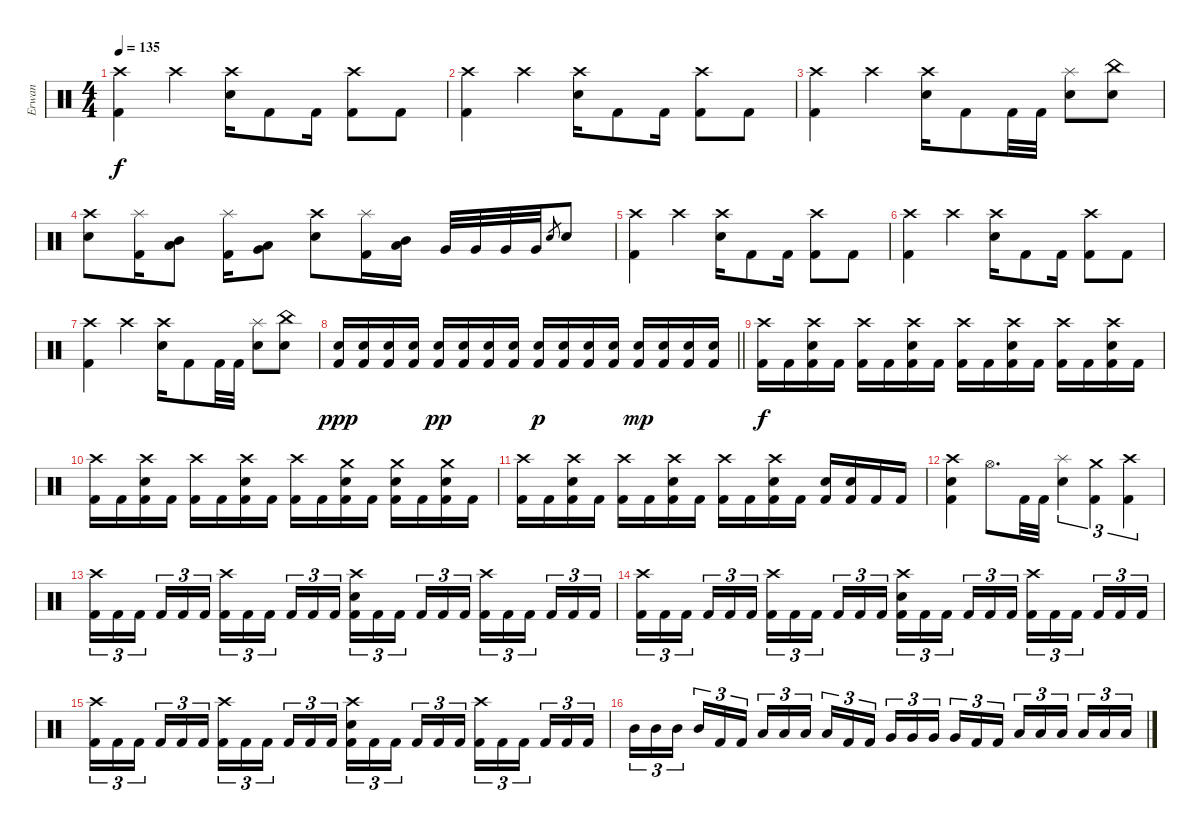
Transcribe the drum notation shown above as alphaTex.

\track ("Erwan" "Erwan") {instrument percussion}
\staff {score}
\articulation defaults
\ts (4 4)
\tempo 135
\clef neutral
\ks c
("Crash high (hit)" "Kick (hit) 2").4{dy f} "Crash high (hit)".4 ("Crash high (hit)" "Electric Snare (hit)").16 "Kick (hit) 2".8 "Kick (hit) 2".16 ("Crash high (hit)" "Kick (hit) 2").8 "Kick (hit) 2".8 |
("Crash high (hit)" "Kick (hit) 2").4 "Crash high (hit)".4 ("Crash high (hit)" "Electric Snare (hit)").16 "Kick (hit) 2".8 "Kick (hit) 2".16 ("Crash high (hit)" "Kick (hit) 2").8 "Kick (hit) 2".8 |
("Crash high (hit)" "Kick (hit) 2").4 "Crash high (hit)".4 ("Crash high (hit)" "Electric Snare (hit)").16 "Kick (hit) 2".8 "Kick (hit) 2".32 "Kick (hit) 2".32 ("Splash (hit)" "Electric Snare (hit)").8 ("China (hit)" "Electric Snare (hit)").8 |
("Crash high (hit)" "Electric Snare (hit)").8 ("Splash (hit)" "Kick (hit) 2").16 ("Mid Tom (hit)" "Low Tom (hit)").8 ("Splash (hit)" "Kick (hit) 2").16 ("Low Tom (hit)" "Very Low Tom (hit)").8 ("Crash high (hit)" "Electric Snare (hit)").8 ("Splash (hit)" "Kick (hit) 2").16 ("Mid Tom (hit)" "Low Tom (hit)").16 "Very Low Tom (hit)".32 "Very Low Tom (hit)".32 "Very Low Tom (hit)".32 "Very Low Tom (hit)".32 "Electric Snare (hit)".8{gr} "Electric Snare (hit)".8 |
("Crash high (hit)" "Kick (hit) 2").4 "Crash high (hit)".4 ("Crash high (hit)" "Electric Snare (hit)").16 "Kick (hit) 2".8 "Kick (hit) 2".16 ("Crash high (hit)" "Kick (hit) 2").8 "Kick (hit) 2".8 |
("Crash high (hit)" "Kick (hit) 2").4 "Crash high (hit)".4 ("Crash high (hit)" "Electric Snare (hit)").16 "Kick (hit) 2".8 "Kick (hit) 2".16 ("Crash high (hit)" "Kick (hit) 2").8 "Kick (hit) 2".8 |
("Crash high (hit)" "Kick (hit) 2").4 "Crash high (hit)".4 ("Crash high (hit)" "Electric Snare (hit)").16 "Kick (hit) 2".8 "Kick (hit) 2".32 "Kick (hit) 2".32 ("Splash (hit)" "Electric Snare (hit)").8 ("China (hit)" "Electric Snare (hit)").8 |
\barLineRight lightlight
("Electric Snare (hit)" "Kick (hit) 2").16{dy ppp} ("Electric Snare (hit)" "Kick (hit) 2").16 ("Electric Snare (hit)" "Kick (hit) 2").16 ("Electric Snare (hit)" "Kick (hit) 2").16 ("Electric Snare (hit)" "Kick (hit) 2").16{dy pp} ("Electric Snare (hit)" "Kick (hit) 2").16 ("Electric Snare (hit)" "Kick (hit) 2").16 ("Electric Snare (hit)" "Kick (hit) 2").16 ("Electric Snare (hit)" "Kick (hit) 2").16{dy p} ("Electric Snare (hit)" "Kick (hit) 2").16 ("Electric Snare (hit)" "Kick (hit) 2").16 ("Electric Snare (hit)" "Kick (hit) 2").16 ("Electric Snare (hit)" "Kick (hit) 2").16{dy mp} ("Electric Snare (hit)" "Kick (hit) 2").16 ("Electric Snare (hit)" "Kick (hit) 2").16 ("Electric Snare (hit)" "Kick (hit) 2").16 |
("Crash high (hit)" "Kick (hit) 2").16{dy f} "Kick (hit) 2".16 ("Crash high (hit)" "Electric Snare (hit)" "Kick (hit) 2").16 "Kick (hit) 2".16 ("Crash high (hit)" "Kick (hit) 2").16 "Kick (hit) 2".16 ("Crash high (hit)" "Electric Snare (hit)" "Kick (hit) 2").16 "Kick (hit) 2".16 ("Crash high (hit)" "Kick (hit) 2").16 "Kick (hit) 2".16 ("Crash high (hit)" "Electric Snare (hit)" "Kick (hit) 2").16 "Kick (hit) 2".16 ("Crash high (hit)" "Kick (hit) 2").16 "Kick (hit) 2".16 ("Crash high (hit)" "Electric Snare (hit)" "Kick (hit) 2").16 "Kick (hit) 2".16 |
("Crash high (hit)" "Kick (hit) 2").16 "Kick (hit) 2".16 ("Crash high (hit)" "Electric Snare (hit)" "Kick (hit) 2").16 "Kick (hit) 2".16 ("Crash high (hit)" "Kick (hit) 2").16 "Kick (hit) 2".16 ("Crash high (hit)" "Electric Snare (hit)" "Kick (hit) 2").16 "Kick (hit) 2".16 ("Crash high (hit)" "Kick (hit) 2").16 "Kick (hit) 2".16 ("Crash medium (hit)" "Electric Snare (hit)" "Kick (hit) 2").16 "Kick (hit) 2".16 ("Crash medium (hit)" "Electric Snare (hit)" "Kick (hit) 2").16 "Kick (hit) 2".16 ("Crash medium (hit)" "Electric Snare (hit)" "Kick (hit) 2").16 "Kick (hit) 2".16 |
("Crash high (hit)" "Kick (hit) 2").16 "Kick (hit) 2".16 ("Crash high (hit)" "Electric Snare (hit)" "Kick (hit) 2").16 "Kick (hit) 2".16 ("Crash high (hit)" "Kick (hit) 2").16 "Kick (hit) 2".16 ("Crash high (hit)" "Electric Snare (hit)" "Kick (hit) 2").16 "Kick (hit) 2".16 ("Crash high (hit)" "Kick (hit) 2").16 "Kick (hit) 2".16 ("Crash high (hit)" "Electric Snare (hit)" "Kick (hit) 2").16 "Kick (hit) 2".16 ("Electric Snare (hit)" "Kick (hit) 2").16 ("Electric Snare (hit)" "Kick (hit) 2").16 "Kick (hit) 2".16 "Kick (hit) 2".16 |
("Crash high (hit)" "Electric Snare (hit)" "Kick (hit) 2").4 "Hi-Hat (open)".8{d} "Kick (hit) 2".32 "Kick (hit) 2".32 ("Splash (hit)" "Electric Snare (hit)").4{tu (3 2)} ("Crash medium (hit)" "Kick (hit) 2").4{tu (3 2)} ("Crash high (hit)" "Kick (hit) 2").4{tu (3 2)} |
("Crash high (hit)" "Kick (hit) 2").16{tu (3 2)} "Kick (hit) 2".16{tu (3 2)} "Kick (hit) 2".16{tu (3 2) beam splitsecondary} "Kick (hit) 2".16{tu (3 2)} "Kick (hit) 2".16{tu (3 2)} "Kick (hit) 2".16{tu (3 2)} ("Crash high (hit)" "Kick (hit) 2").16{tu (3 2)} "Kick (hit) 2".16{tu (3 2)} "Kick (hit) 2".16{tu (3 2) beam splitsecondary} "Kick (hit) 2".16{tu (3 2)} "Kick (hit) 2".16{tu (3 2)} "Kick (hit) 2".16{tu (3 2)} ("Crash high (hit)" "Electric Snare (hit)" "Kick (hit) 2").16{tu (3 2)} "Kick (hit) 2".16{tu (3 2)} "Kick (hit) 2".16{tu (3 2) beam splitsecondary} "Kick (hit) 2".16{tu (3 2)} "Kick (hit) 2".16{tu (3 2)} "Kick (hit) 2".16{tu (3 2)} ("Crash high (hit)" "Kick (hit) 2").16{tu (3 2)} "Kick (hit) 2".16{tu (3 2)} "Kick (hit) 2".16{tu (3 2) beam splitsecondary} "Kick (hit) 2".16{tu (3 2)} "Kick (hit) 2".16{tu (3 2)} "Kick (hit) 2".16{tu (3 2)} |
("Crash high (hit)" "Kick (hit) 2").16{tu (3 2)} "Kick (hit) 2".16{tu (3 2)} "Kick (hit) 2".16{tu (3 2) beam splitsecondary} "Kick (hit) 2".16{tu (3 2)} "Kick (hit) 2".16{tu (3 2)} "Kick (hit) 2".16{tu (3 2)} ("Crash high (hit)" "Kick (hit) 2").16{tu (3 2)} "Kick (hit) 2".16{tu (3 2)} "Kick (hit) 2".16{tu (3 2) beam splitsecondary} "Kick (hit) 2".16{tu (3 2)} "Kick (hit) 2".16{tu (3 2)} "Kick (hit) 2".16{tu (3 2)} ("Crash high (hit)" "Electric Snare (hit)" "Kick (hit) 2").16{tu (3 2)} "Kick (hit) 2".16{tu (3 2)} "Kick (hit) 2".16{tu (3 2) beam splitsecondary} "Kick (hit) 2".16{tu (3 2)} "Kick (hit) 2".16{tu (3 2)} "Kick (hit) 2".16{tu (3 2)} ("Crash high (hit)" "Kick (hit) 2").16{tu (3 2)} "Kick (hit) 2".16{tu (3 2)} "Kick (hit) 2".16{tu (3 2) beam splitsecondary} "Kick (hit) 2".16{tu (3 2)} "Kick (hit) 2".16{tu (3 2)} "Kick (hit) 2".16{tu (3 2)} |
("Crash high (hit)" "Kick (hit) 2").16{tu (3 2)} "Kick (hit) 2".16{tu (3 2)} "Kick (hit) 2".16{tu (3 2) beam splitsecondary} "Kick (hit) 2".16{tu (3 2)} "Kick (hit) 2".16{tu (3 2)} "Kick (hit) 2".16{tu (3 2)} ("Crash high (hit)" "Kick (hit) 2").16{tu (3 2)} "Kick (hit) 2".16{tu (3 2)} "Kick (hit) 2".16{tu (3 2) beam splitsecondary} "Kick (hit) 2".16{tu (3 2)} "Kick (hit) 2".16{tu (3 2)} "Kick (hit) 2".16{tu (3 2)} ("Crash high (hit)" "Electric Snare (hit)" "Kick (hit) 2").16{tu (3 2)} "Kick (hit) 2".16{tu (3 2)} "Kick (hit) 2".16{tu (3 2) beam splitsecondary} "Kick (hit) 2".16{tu (3 2)} "Kick (hit) 2".16{tu (3 2)} "Kick (hit) 2".16{tu (3 2)} ("Crash high (hit)" "Kick (hit) 2").16{tu (3 2)} "Kick (hit) 2".16{tu (3 2)} "Kick (hit) 2".16{tu (3 2) beam splitsecondary} "Kick (hit) 2".16{tu (3 2)} "Kick (hit) 2".16{tu (3 2)} "Kick (hit) 2".16{tu (3 2)} |
"Mid Tom (hit)".16{tu (3 2)} "Mid Tom (hit)".16{tu (3 2)} "Mid Tom (hit)".16{tu (3 2) beam splitsecondary} "Mid Tom (hit)".16{tu (3 2)} "Kick (hit) 2".16{tu (3 2)} "Kick (hit) 2".16{tu (3 2)} "Low Tom (hit)".16{tu (3 2)} "Low Tom (hit)".16{tu (3 2)} "Low Tom (hit)".16{tu (3 2) beam splitsecondary} "Low Tom (hit)".16{tu (3 2)} "Kick (hit) 2".16{tu (3 2)} "Kick (hit) 2".16{tu (3 2)} "Very Low Tom (hit)".16{tu (3 2)} "Very Low Tom (hit)".16{tu (3 2)} "Very Low Tom (hit)".16{tu (3 2) beam splitsecondary} "Very Low Tom (hit)".16{tu (3 2)} "Kick (hit) 2".16{tu (3 2)} "Kick (hit) 2".16{tu (3 2)} "Low Floor Tom (hit)".16{tu (3 2)} "Low Floor Tom (hit)".16{tu (3 2)} "Low Floor Tom (hit)".16{tu (3 2) beam splitsecondary} "Low Floor Tom (hit)".16{tu (3 2)} "Low Floor Tom (hit)".16{tu (3 2)} "Low Floor Tom (hit)".16{tu (3 2)}
